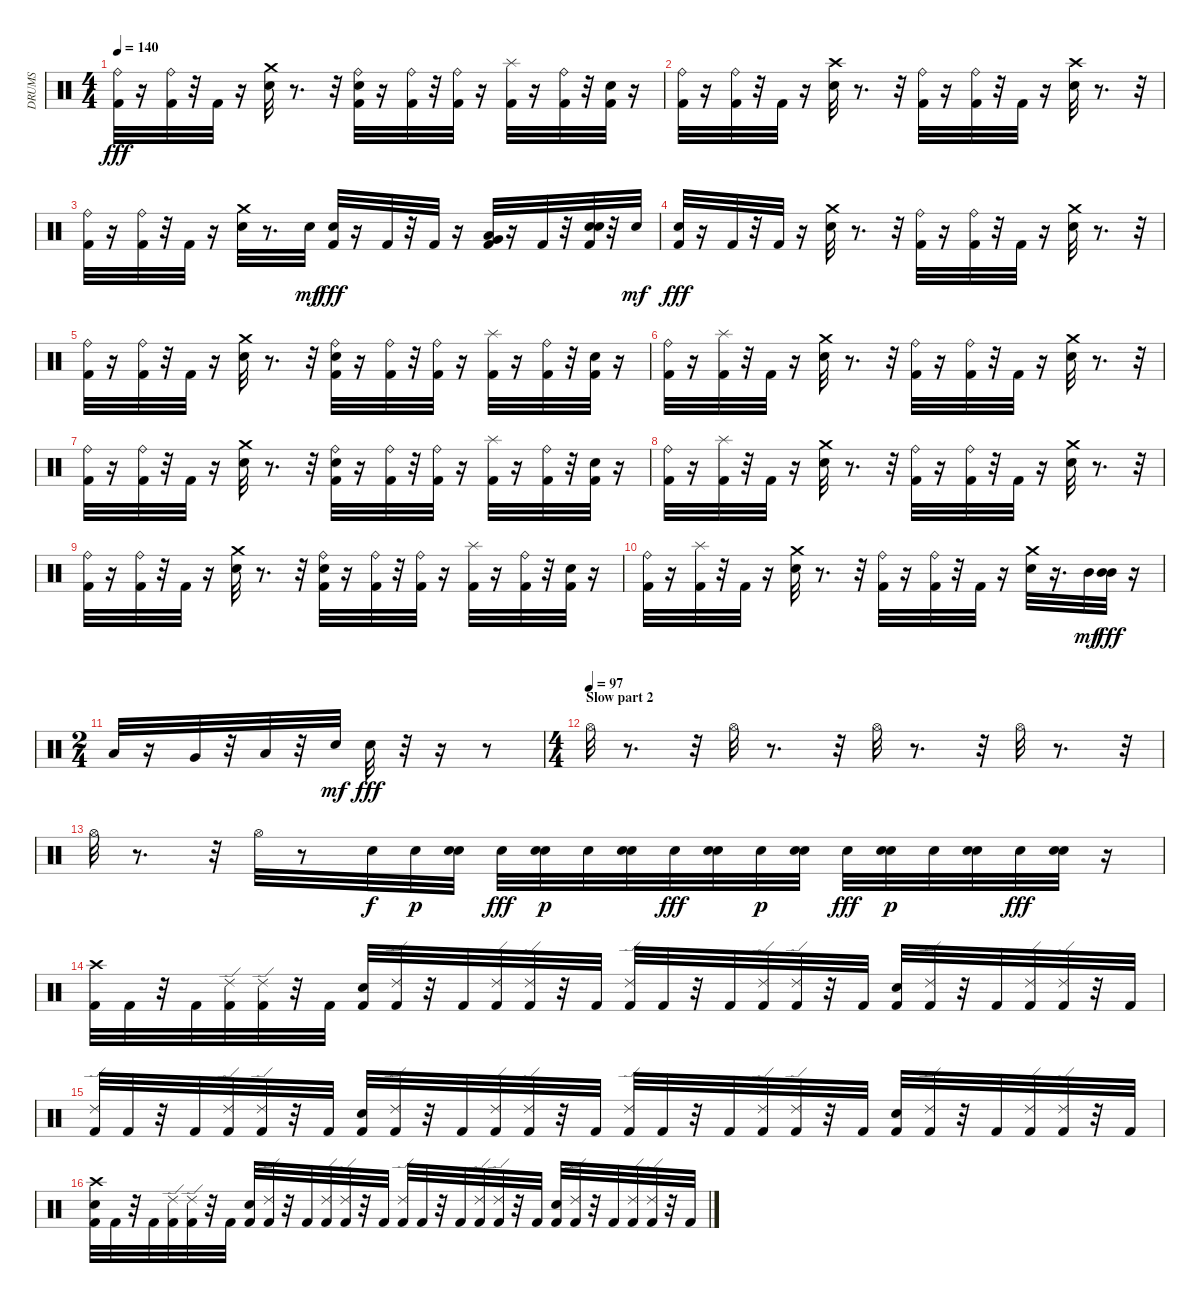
\track ("DRUMS" "DRUMS") {instrument percussion}
\staff {score}
\articulation defaults
\ts (4 4)
\tempo 140
\clef neutral
\ks c
("Ride (bell)" "Kick (hit) 2").32{dy fff} r.16 ("Ride (bell)" "Kick (hit) 2").32 r.32 "Kick (hit) 2".32 r.16 ("Crash medium (hit)" "Electric Snare (hit)").32 r.8{d} r.32 ("Ride (bell)" "Electric Snare (hit)" "Kick (hit) 2").32 r.16 ("Ride (bell)" "Kick (hit) 2").32 r.32 ("Ride (bell)" "Kick (hit) 2").32 r.16 ("Splash (hit)" "Kick (hit) 2").32 r.16 ("Ride (bell)" "Kick (hit) 2").32 r.32 ("Electric Snare (hit)" "Kick (hit) 2").32 r.16 |
("Ride (bell)" "Kick (hit) 2").32 r.16 ("Ride (bell)" "Kick (hit) 2").32 r.32 "Kick (hit) 2".32 r.16 ("Crash high (hit)" "Electric Snare (hit)").32 r.8{d} r.32 ("Ride (bell)" "Kick (hit) 2").32 r.16 ("Ride (bell)" "Kick (hit) 2").32 r.32 "Kick (hit) 2".32 r.16 ("Crash high (hit)" "Electric Snare (hit)").32 r.8{d} r.32 |
("Ride (bell)" "Kick (hit) 2").32 r.16 ("Ride (bell)" "Kick (hit) 2").32 r.32 "Kick (hit) 2".32 r.16 ("Crash medium (hit)" "Electric Snare (hit)").32 r.8{d} "Electric Snare (hit)".32{dy mf} ("Electric Snare (hit)" "Kick (hit) 2").32{dy fff} r.16 "Kick (hit) 2".32 r.32 "Kick (hit) 2".32 r.16 ("Very Low Tom (hit)" "Low Floor Tom (hit)" "Kick (hit) 2").32 r.16 "Kick (hit) 2".32 r.32 ("Electric Snare (hit)" "Electric Snare (hit)" "Kick (hit) 2").32 r.32 "Electric Snare (hit)".32{dy mf} |
("Electric Snare (hit)" "Kick (hit) 2").32{dy fff} r.16 "Kick (hit) 2".32 r.32 "Kick (hit) 2".32 r.16 ("Crash medium (hit)" "Electric Snare (hit)").32 r.8{d} r.32 ("Ride (bell)" "Kick (hit) 2").32 r.16 ("Ride (bell)" "Kick (hit) 2").32 r.32 "Kick (hit) 2".32 r.16 ("Crash medium (hit)" "Electric Snare (hit)").32 r.8{d} r.32 |
("Ride (bell)" "Kick (hit) 2").32 r.16 ("Ride (bell)" "Kick (hit) 2").32 r.32 "Kick (hit) 2".32 r.16 ("Crash medium (hit)" "Electric Snare (hit)").32 r.8{d} r.32 ("Ride (bell)" "Electric Snare (hit)" "Kick (hit) 2").32 r.16 ("Ride (bell)" "Kick (hit) 2").32 r.32 ("Ride (bell)" "Kick (hit) 2").32 r.16 ("Splash (hit)" "Kick (hit) 2").32 r.16 ("Ride (bell)" "Kick (hit) 2").32 r.32 ("Electric Snare (hit)" "Kick (hit) 2").32 r.16 |
("Ride (bell)" "Kick (hit) 2").32 r.16 ("Splash (hit)" "Kick (hit) 2").32 r.32 "Kick (hit) 2".32 r.16 ("Crash medium (hit)" "Electric Snare (hit)").32 r.8{d} r.32 ("Ride (bell)" "Kick (hit) 2").32 r.16 ("Ride (bell)" "Kick (hit) 2").32 r.32 "Kick (hit) 2".32 r.16 ("Crash medium (hit)" "Electric Snare (hit)").32 r.8{d} r.32 |
("Ride (bell)" "Kick (hit) 2").32 r.16 ("Ride (bell)" "Kick (hit) 2").32 r.32 "Kick (hit) 2".32 r.16 ("Crash medium (hit)" "Electric Snare (hit)").32 r.8{d} r.32 ("Ride (bell)" "Electric Snare (hit)" "Kick (hit) 2").32 r.16 ("Ride (bell)" "Kick (hit) 2").32 r.32 ("Ride (bell)" "Kick (hit) 2").32 r.16 ("Splash (hit)" "Kick (hit) 2").32 r.16 ("Ride (bell)" "Kick (hit) 2").32 r.32 ("Electric Snare (hit)" "Kick (hit) 2").32 r.16 |
("Ride (bell)" "Kick (hit) 2").32 r.16 ("Splash (hit)" "Kick (hit) 2").32 r.32 "Kick (hit) 2".32 r.16 ("Crash medium (hit)" "Electric Snare (hit)").32 r.8{d} r.32 ("Ride (bell)" "Kick (hit) 2").32 r.16 ("Ride (bell)" "Kick (hit) 2").32 r.32 "Kick (hit) 2".32 r.16 ("Crash medium (hit)" "Electric Snare (hit)").32 r.8{d} r.32 |
("Ride (bell)" "Kick (hit) 2").32 r.16 ("Ride (bell)" "Kick (hit) 2").32 r.32 "Kick (hit) 2".32 r.16 ("Crash medium (hit)" "Electric Snare (hit)").32 r.8{d} r.32 ("Ride (bell)" "Electric Snare (hit)" "Kick (hit) 2").32 r.16 ("Ride (bell)" "Kick (hit) 2").32 r.32 ("Ride (bell)" "Kick (hit) 2").32 r.16 ("Splash (hit)" "Kick (hit) 2").32 r.16 ("Ride (bell)" "Kick (hit) 2").32 r.32 ("Electric Snare (hit)" "Kick (hit) 2").32 r.16 |
("Ride (bell)" "Kick (hit) 2").32 r.16 ("Splash (hit)" "Kick (hit) 2").32 r.32 "Kick (hit) 2".32 r.16 ("Crash medium (hit)" "Electric Snare (hit)").32 r.8{d} r.32 ("Ride (bell)" "Kick (hit) 2").32 r.16 ("Ride (bell)" "Kick (hit) 2").32 r.32 "Kick (hit) 2".32 r.16 ("Crash medium (hit)" "Electric Snare (hit)").32 r.16{d} "Mid Tom (hit)".32{dy mf} ("Mid Tom (hit)" "Mid Tom (hit)").32{dy fff} r.16 |
\ts (2 4)
"Low Tom (hit)".32 r.16 "Very Low Tom (hit)".32 r.32 "Low Floor Tom (hit)".32 r.32 "Electric Snare (hit)".32{dy mf} "Electric Snare (hit)".32{dy fff} r.32 r.16 r.8 |
\ts (4 4)
\section ("" "Slow part 2")
\tempo (97)
"Hi-Hat (open)".32 r.8{d} r.32 "Hi-Hat (open)".32 r.8{d} r.32 "Hi-Hat (open)".32 r.8{d} r.32 "Hi-Hat (open)".32 r.8{d} r.32 |
"Hi-Hat (open)".32 r.8{d} r.32 "Hi-Hat (open)".32 r.8 "Electric Snare (hit)".32{dy f} "Electric Snare (hit)".32{dy p} ("Electric Snare (hit)" "Electric Snare (hit)").32 "Electric Snare (hit)".32{dy fff} ("Electric Snare (hit)" "Electric Snare (hit)").32{dy p} "Electric Snare (hit)".32 ("Electric Snare (hit)" "Electric Snare (hit)").32 "Electric Snare (hit)".32{dy fff} ("Electric Snare (hit)" "Electric Snare (hit)").32 "Electric Snare (hit)".32{dy p} ("Electric Snare (hit)" "Electric Snare (hit)").32 "Electric Snare (hit)".32{dy fff} ("Electric Snare (hit)" "Electric Snare (hit)").32{dy p} "Electric Snare (hit)".32 ("Electric Snare (hit)" "Electric Snare (hit)").32 "Electric Snare (hit)".32{dy fff} ("Electric Snare (hit)" "Electric Snare (hit)").32 r.16 |
("Crash high (hit)" "Kick (hit) 2").32 "Kick (hit) 2".32 r.32 "Kick (hit) 2".32 ("Ride (edge) 2" "Kick (hit) 2").32 ("Ride (edge) 2" "Kick (hit) 2").32 r.32 "Kick (hit) 2".32 ("Electric Snare (hit)" "Kick (hit) 2").32 ("Ride (edge) 2" "Kick (hit) 2").32 r.32 "Kick (hit) 2".32 ("Ride (edge) 2" "Kick (hit) 2").32 ("Ride (edge) 2" "Kick (hit) 2").32 r.32 "Kick (hit) 2".32 ("Ride (edge) 2" "Kick (hit) 2").32 "Kick (hit) 2".32 r.32 "Kick (hit) 2".32 ("Ride (edge) 2" "Kick (hit) 2").32 ("Ride (edge) 2" "Kick (hit) 2").32 r.32 "Kick (hit) 2".32 ("Electric Snare (hit)" "Kick (hit) 2").32 ("Ride (edge) 2" "Kick (hit) 2").32 r.32 "Kick (hit) 2".32 ("Ride (edge) 2" "Kick (hit) 2").32 ("Ride (edge) 2" "Kick (hit) 2").32 r.32 "Kick (hit) 2".32 |
("Ride (edge) 2" "Kick (hit) 2").32 "Kick (hit) 2".32 r.32 "Kick (hit) 2".32 ("Ride (edge) 2" "Kick (hit) 2").32 ("Ride (edge) 2" "Kick (hit) 2").32 r.32 "Kick (hit) 2".32 ("Electric Snare (hit)" "Kick (hit) 2").32 ("Ride (edge) 2" "Kick (hit) 2").32 r.32 "Kick (hit) 2".32 ("Ride (edge) 2" "Kick (hit) 2").32 ("Ride (edge) 2" "Kick (hit) 2").32 r.32 "Kick (hit) 2".32 ("Ride (edge) 2" "Kick (hit) 2").32 "Kick (hit) 2".32 r.32 "Kick (hit) 2".32 ("Ride (edge) 2" "Kick (hit) 2").32 ("Ride (edge) 2" "Kick (hit) 2").32 r.32 "Kick (hit) 2".32 ("Electric Snare (hit)" "Kick (hit) 2").32 ("Ride (edge) 2" "Kick (hit) 2").32 r.32 "Kick (hit) 2".32 ("Ride (edge) 2" "Kick (hit) 2").32 ("Ride (edge) 2" "Kick (hit) 2").32 r.32 "Kick (hit) 2".32 |
("Crash high (hit)" "Electric Snare (hit)" "Kick (hit) 2").32 "Kick (hit) 2".32 r.32 "Kick (hit) 2".32 ("Ride (edge) 2" "Kick (hit) 2").32 ("Ride (edge) 2" "Kick (hit) 2").32 r.32 "Kick (hit) 2".32 ("Electric Snare (hit)" "Kick (hit) 2").32 ("Ride (edge) 2" "Kick (hit) 2").32 r.32 "Kick (hit) 2".32 ("Ride (edge) 2" "Kick (hit) 2").32 ("Ride (edge) 2" "Kick (hit) 2").32 r.32 "Kick (hit) 2".32 ("Ride (edge) 2" "Kick (hit) 2").32 "Kick (hit) 2".32 r.32 "Kick (hit) 2".32 ("Ride (edge) 2" "Kick (hit) 2").32 ("Ride (edge) 2" "Kick (hit) 2").32 r.32 "Kick (hit) 2".32 ("Electric Snare (hit)" "Kick (hit) 2").32 ("Ride (edge) 2" "Kick (hit) 2").32 r.32 "Kick (hit) 2".32 ("Ride (edge) 2" "Kick (hit) 2").32 ("Ride (edge) 2" "Kick (hit) 2").32 r.32 "Kick (hit) 2".32
